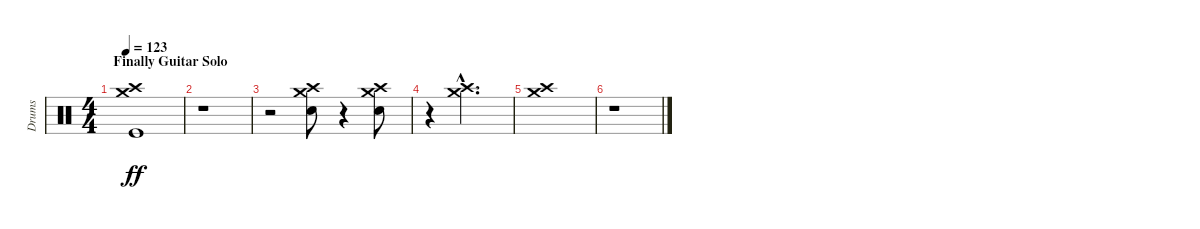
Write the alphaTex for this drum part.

\track ("Drums" "Drums") {instrument percussion}
\staff {score}
\articulation defaults
\ts (4 4)
\section ("" "Finally Guitar Solo")
\tempo 123
\clef neutral
\ks c
("Crash high (hit)" "Crash medium (hit)" "Kick (hit)").1{dy ff} |
r.1 |
r.2 ("Crash medium (hit)" "Crash high (hit)" "Snare (hit) 2").8 r.4 ("Crash medium (hit)" "Crash high (hit)" "Snare (hit) 2").8 |
r.4 ("Crash medium (hit)"{hac} "Crash high (hit)"{hac}).2{d} |
("Crash medium (hit)" "Crash high (hit)").1 |
r.1
